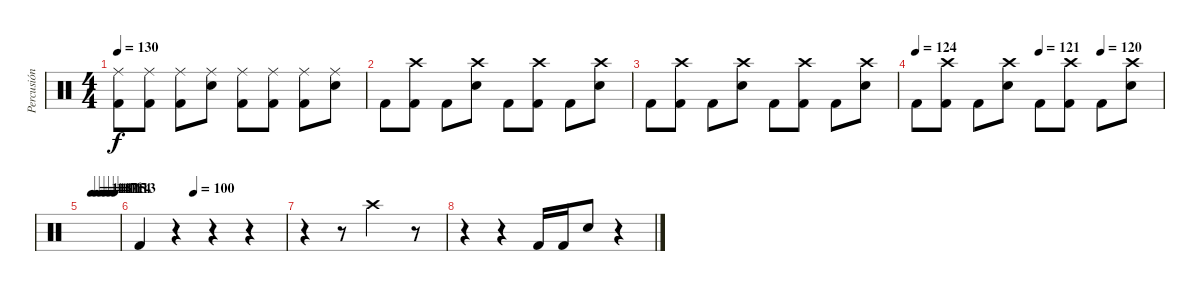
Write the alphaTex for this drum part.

\track ("Percusión" "Percusión") {instrument percussion}
\staff {score}
\articulation defaults
\ts (4 4)
\tempo 130
\clef neutral
\ks c
("Kick (hit) 2" "Ride (middle)").8{dy f} ("Kick (hit) 2" "Ride (middle)").8 ("Kick (hit) 2" "Ride (middle)").8 ("Snare (hit) 2" "Ride (middle)").8 ("Kick (hit) 2" "Ride (middle)").8 ("Kick (hit) 2" "Ride (middle)").8 ("Kick (hit) 2" "Ride (middle)").8 ("Snare (hit) 2" "Ride (middle)").8 |
"Kick (hit) 2".8 ("Kick (hit) 2" "Crash high (hit)").8 "Kick (hit) 2".8 ("Snare (hit) 2" "Crash high (hit)").8 "Kick (hit) 2".8 ("Kick (hit) 2" "Crash high (hit)").8 "Kick (hit) 2".8 ("Snare (hit) 2" "Crash high (hit)").8 |
"Kick (hit) 2".8 ("Kick (hit) 2" "Crash high (hit)").8 "Kick (hit) 2".8 ("Snare (hit) 2" "Crash high (hit)").8 "Kick (hit) 2".8 ("Kick (hit) 2" "Crash high (hit)").8 "Kick (hit) 2".8 ("Snare (hit) 2" "Crash high (hit)").8 |
\tempo 124
\tempo (121 0.5)
\tempo (120 0.75)
"Kick (hit) 2".8 ("Kick (hit) 2" "Crash high (hit)").8 "Kick (hit) 2".8 ("Snare (hit) 2" "Crash high (hit)").8 "Kick (hit) 2".8 ("Kick (hit) 2" "Crash high (hit)").8 "Kick (hit) 2".8 ("Snare (hit) 2" "Crash high (hit)").8 |
\tempo (118 0.25)
\tempo (117 0.375)
\tempo (116 0.5)
\tempo (115 0.625)
\tempo (114 0.75)
\tempo (113 0.875)
|
\tempo (100 0.375)
"Kick (hit) 2".4 r.4 r.4 r.4 |
r.4 r.8 "Crash high (hit)".2 r.8 |
r.4 r.4 "Kick (hit) 2".16 "Kick (hit) 2".16 "Snare (hit) 2".8 r.4
